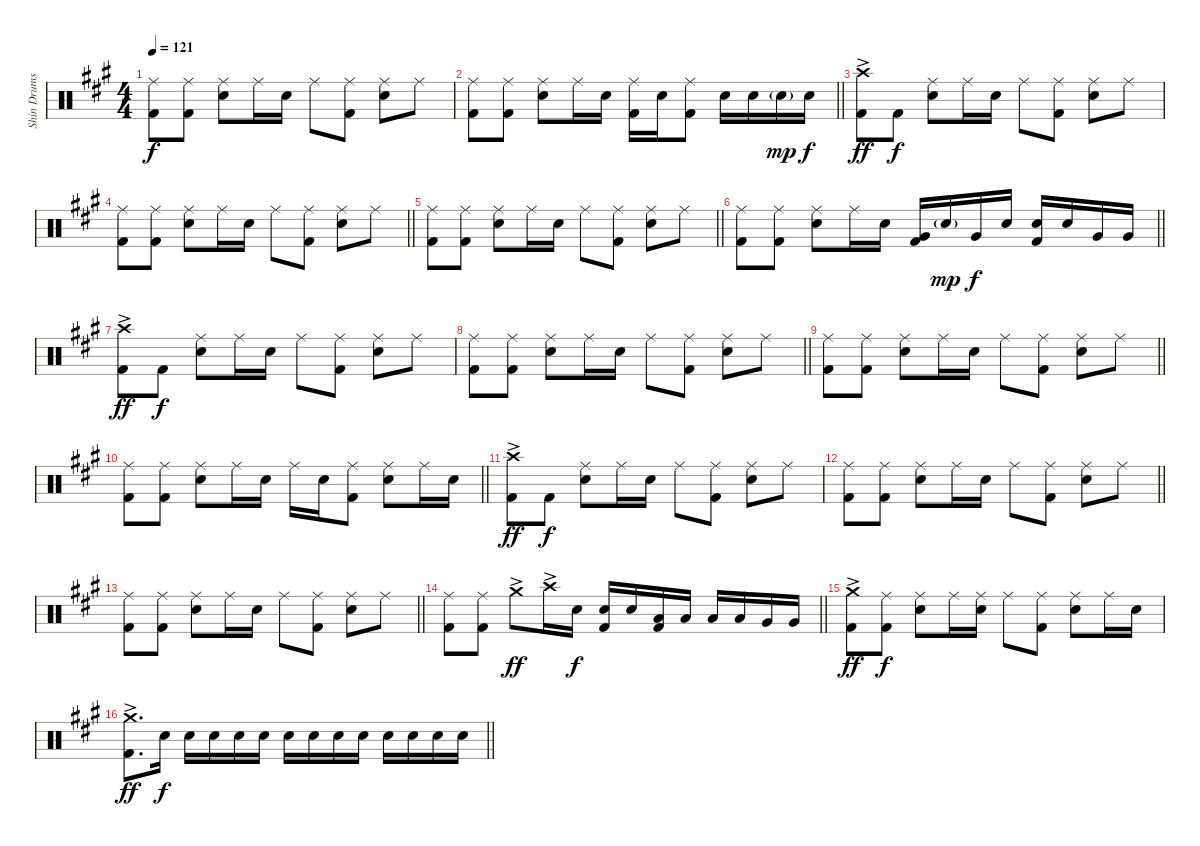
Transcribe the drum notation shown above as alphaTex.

\track ("Shin Drums" "Shin Drums") {instrument percussion}
\staff {score}
\articulation defaults
\ts (4 4)
\tempo 121
\clef neutral
\ks a
("Ride (middle)" "Kick (hit) 2").8{dy f} ("Ride (middle)" "Kick (hit) 2").8 ("Ride (middle)" "Snare (hit) 2").8 "Ride (middle)".16 "Snare (hit) 2".16 "Ride (middle)".8 ("Ride (middle)" "Kick (hit) 2").8 ("Ride (middle)" "Snare (hit) 2").8 "Ride (middle)".8 |
\barLineRight lightlight
("Ride (middle)" "Kick (hit) 2").8 ("Ride (middle)" "Kick (hit) 2").8 ("Ride (middle)" "Snare (hit) 2").8 "Ride (middle)".16 "Snare (hit) 2".16 ("Ride (middle)" "Kick (hit) 2").16 "Snare (hit) 2".16 ("Ride (middle)" "Kick (hit) 2").8 "Snare (hit) 2".16 "Snare (hit) 2".16 "Snare (hit) 2"{g}.16{dy mp} "Snare (hit) 2".16{dy f} |
("Crash high (hit)"{ac} "Kick (hit) 2"{ac}).8{dy ff} "Kick (hit) 2".8{dy f} ("Ride (middle)" "Snare (hit) 2").8 "Ride (middle)".16 "Snare (hit) 2".16 "Ride (middle)".8 ("Ride (middle)" "Kick (hit) 2").8 ("Ride (middle)" "Snare (hit) 2").8 "Ride (middle)".8 |
\barLineRight lightlight
("Ride (middle)" "Kick (hit) 2").8 ("Ride (middle)" "Kick (hit) 2").8 ("Ride (middle)" "Snare (hit) 2").8 "Ride (middle)".16 "Snare (hit) 2".16 "Ride (middle)".8 ("Ride (middle)" "Kick (hit) 2").8 ("Ride (middle)" "Snare (hit) 2").8 "Ride (middle)".8 |
\section ("" "")
\barLineRight lightlight
("Ride (middle)" "Kick (hit) 2").8 ("Ride (middle)" "Kick (hit) 2").8 ("Ride (middle)" "Snare (hit) 2").8 "Ride (middle)".16 "Snare (hit) 2".16 "Ride (middle)".8 ("Ride (middle)" "Kick (hit) 2").8 ("Ride (middle)" "Snare (hit) 2").8 "Ride (middle)".8 |
\barLineRight lightlight
("Ride (middle)" "Kick (hit) 2").8 ("Ride (middle)" "Kick (hit) 2").8 ("Ride (middle)" "Snare (hit) 2").8 "Ride (middle)".16 "Snare (hit) 2".16 ("Very Low Tom (hit)" "Kick (hit) 2").16 "Snare (hit) 2"{g}.16{dy mp} "Very Low Tom (hit)".16{dy f} "Snare (hit) 2".16 ("Snare (hit) 2" "Kick (hit) 2").16 "Snare (hit) 2".16 "Very Low Tom (hit)".16 "Very Low Tom (hit)".16 |
("Crash high (hit)"{ac} "Kick (hit) 2"{ac}).8{dy ff} "Kick (hit) 2".8{dy f} ("Ride (middle)" "Snare (hit) 2").8 "Ride (middle)".16 "Snare (hit) 2".16 "Ride (middle)".8 ("Ride (middle)" "Kick (hit) 2").8 ("Ride (middle)" "Snare (hit) 2").8 "Ride (middle)".8 |
\barLineRight lightlight
("Ride (middle)" "Kick (hit) 2").8 ("Ride (middle)" "Kick (hit) 2").8 ("Ride (middle)" "Snare (hit) 2").8 "Ride (middle)".16 "Snare (hit) 2".16 "Ride (middle)".8 ("Ride (middle)" "Kick (hit) 2").8 ("Ride (middle)" "Snare (hit) 2").8 "Ride (middle)".8 |
\barLineRight lightlight
("Ride (middle)" "Kick (hit) 2").8 ("Ride (middle)" "Kick (hit) 2").8 ("Ride (middle)" "Snare (hit) 2").8 "Ride (middle)".16 "Snare (hit) 2".16 "Ride (middle)".8 ("Ride (middle)" "Kick (hit) 2").8 ("Ride (middle)" "Snare (hit) 2").8 "Ride (middle)".8 |
\barLineRight lightlight
("Ride (middle)" "Kick (hit) 2").8 ("Ride (middle)" "Kick (hit) 2").8 ("Ride (middle)" "Snare (hit) 2").8 "Ride (middle)".16 "Snare (hit) 2".16 "Ride (middle)".16 "Snare (hit) 2".16 ("Ride (middle)" "Kick (hit) 2").8 ("Ride (middle)" "Snare (hit) 2").8 "Ride (middle)".16 "Snare (hit) 2".16 |
("Crash high (hit)"{ac} "Kick (hit) 2"{ac}).8{dy ff} "Kick (hit) 2".8{dy f} ("Ride (middle)" "Snare (hit) 2").8 "Ride (middle)".16 "Snare (hit) 2".16 "Ride (middle)".8 ("Ride (middle)" "Kick (hit) 2").8 ("Ride (middle)" "Snare (hit) 2").8 "Ride (middle)".8 |
\barLineRight lightlight
("Ride (middle)" "Kick (hit) 2").8 ("Ride (middle)" "Kick (hit) 2").8 ("Ride (middle)" "Snare (hit) 2").8 "Ride (middle)".16 "Snare (hit) 2".16 "Ride (middle)".8 ("Ride (middle)" "Kick (hit) 2").8 ("Ride (middle)" "Snare (hit) 2").8 "Ride (middle)".8 |
\section ("" "")
\barLineRight lightlight
("Ride (middle)" "Kick (hit) 2").8 ("Ride (middle)" "Kick (hit) 2").8 ("Ride (middle)" "Snare (hit) 2").8 "Ride (middle)".16 "Snare (hit) 2".16 "Ride (middle)".8 ("Ride (middle)" "Kick (hit) 2").8 ("Ride (middle)" "Snare (hit) 2").8 "Ride (middle)".8 |
\barLineRight lightlight
("Ride (middle)" "Kick (hit) 2").8 ("Ride (middle)" "Kick (hit) 2").8 "Crash medium (hit)"{ac}.8{dy ff} "Crash high (hit)"{ac}.16 "Snare (hit) 2".16{dy f} ("Snare (hit) 2" "Kick (hit) 2").16 "Snare (hit) 2".16 ("Low Tom (hit)" "Kick (hit) 2").16 "Low Tom (hit)".16 "Low Tom (hit)".16 "Low Tom (hit)".16 "Very Low Tom (hit)".16 "Very Low Tom (hit)".16 |
("Crash medium (hit)"{ac} "Kick (hit) 2"{ac}).8{dy ff} ("Ride (middle)" "Kick (hit) 2").8{dy f} ("Ride (middle)" "Snare (hit) 2").8 "Ride (middle)".16 ("Ride (middle)" "Snare (hit) 2").16 "Ride (middle)".8 ("Ride (middle)" "Kick (hit) 2").8 ("Ride (middle)" "Snare (hit) 2").8 "Ride (middle)".16 "Snare (hit) 2".16 |
\barLineRight lightlight
("Crash medium (hit)"{ac} "Kick (hit) 2"{ac}).8{d dy ff} "Snare (hit) 2".16{dy f} "Snare (hit) 2".16 "Snare (hit) 2".16 "Snare (hit) 2".16 "Snare (hit) 2".16 "Snare (hit) 2".16 "Snare (hit) 2".16 "Snare (hit) 2".16 "Snare (hit) 2".16 "Snare (hit) 2".16 "Snare (hit) 2".16 "Snare (hit) 2".16 "Snare (hit) 2".16
